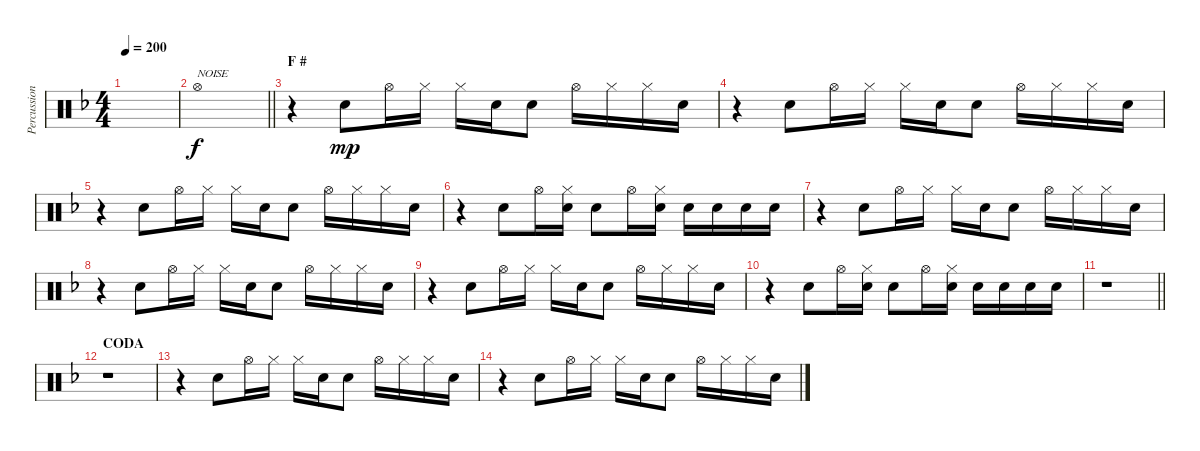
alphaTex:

\track ("Percussion (Tainaka Ritsu)" "Percussion") {instrument percussion}
\staff {score}
\articulation defaults
\ts (4 4)
\tempo 200
\clef neutral
\ks f
|
\barLineRight lightlight "Hi-Hat (open)".1{txt "NOISE" dy f}
|
\section ("" "F #")
r.4 "Electric Snare (hit)".8{dy mp} "Hi-Hat (open)".16 "Hi-Hat (closed)".16 "Hi-Hat (closed)".16 "Electric Snare (hit)".16 "Electric Snare (hit)".8 "Hi-Hat (open)".16 "Hi-Hat (closed)".16 "Hi-Hat (closed)".16 "Electric Snare (hit)".16 |
r.4 "Electric Snare (hit)".8 "Hi-Hat (open)".16 "Hi-Hat (closed)".16 "Hi-Hat (closed)".16 "Electric Snare (hit)".16 "Electric Snare (hit)".8 "Hi-Hat (open)".16 "Hi-Hat (closed)".16 "Hi-Hat (closed)".16 "Electric Snare (hit)".16 |
r.4 "Electric Snare (hit)".8 "Hi-Hat (open)".16 "Hi-Hat (closed)".16 "Hi-Hat (closed)".16 "Electric Snare (hit)".16 "Electric Snare (hit)".8 "Hi-Hat (open)".16 "Hi-Hat (closed)".16 "Hi-Hat (closed)".16 "Electric Snare (hit)".16 |
r.4 "Electric Snare (hit)".8 "Hi-Hat (open)".16 ("Hi-Hat (closed)" "Electric Snare (hit)").16 "Electric Snare (hit)".8 "Hi-Hat (open)".16 ("Hi-Hat (closed)" "Electric Snare (hit)").16 "Electric Snare (hit)".16 "Electric Snare (hit)".16 "Electric Snare (hit)".16 "Electric Snare (hit)".16 |
r.4 "Electric Snare (hit)".8 "Hi-Hat (open)".16 "Hi-Hat (closed)".16 "Hi-Hat (closed)".16 "Electric Snare (hit)".16 "Electric Snare (hit)".8 "Hi-Hat (open)".16 "Hi-Hat (closed)".16 "Hi-Hat (closed)".16 "Electric Snare (hit)".16 |
r.4 "Electric Snare (hit)".8 "Hi-Hat (open)".16 "Hi-Hat (closed)".16 "Hi-Hat (closed)".16 "Electric Snare (hit)".16 "Electric Snare (hit)".8 "Hi-Hat (open)".16 "Hi-Hat (closed)".16 "Hi-Hat (closed)".16 "Electric Snare (hit)".16 |
r.4 "Electric Snare (hit)".8 "Hi-Hat (open)".16 "Hi-Hat (closed)".16 "Hi-Hat (closed)".16 "Electric Snare (hit)".16 "Electric Snare (hit)".8 "Hi-Hat (open)".16 "Hi-Hat (closed)".16 "Hi-Hat (closed)".16 "Electric Snare (hit)".16 |
r.4 "Electric Snare (hit)".8 "Hi-Hat (open)".16 ("Hi-Hat (closed)" "Electric Snare (hit)").16 "Electric Snare (hit)".8 "Hi-Hat (open)".16 ("Hi-Hat (closed)" "Electric Snare (hit)").16 "Electric Snare (hit)".16 "Electric Snare (hit)".16 "Electric Snare (hit)".16 "Electric Snare (hit)".16 |
\barLineRight lightlight
r.1 |
\section ("" "CODA")
r.1 |
r.4 "Electric Snare (hit)".8 "Hi-Hat (open)".16 "Hi-Hat (closed)".16 "Hi-Hat (closed)".16 "Electric Snare (hit)".16 "Electric Snare (hit)".8 "Hi-Hat (open)".16 "Hi-Hat (closed)".16 "Hi-Hat (closed)".16 "Electric Snare (hit)".16 |
r.4 "Electric Snare (hit)".8 "Hi-Hat (open)".16 "Hi-Hat (closed)".16 "Hi-Hat (closed)".16 "Electric Snare (hit)".16 "Electric Snare (hit)".8 "Hi-Hat (open)".16 "Hi-Hat (closed)".16 "Hi-Hat (closed)".16 "Electric Snare (hit)".16
